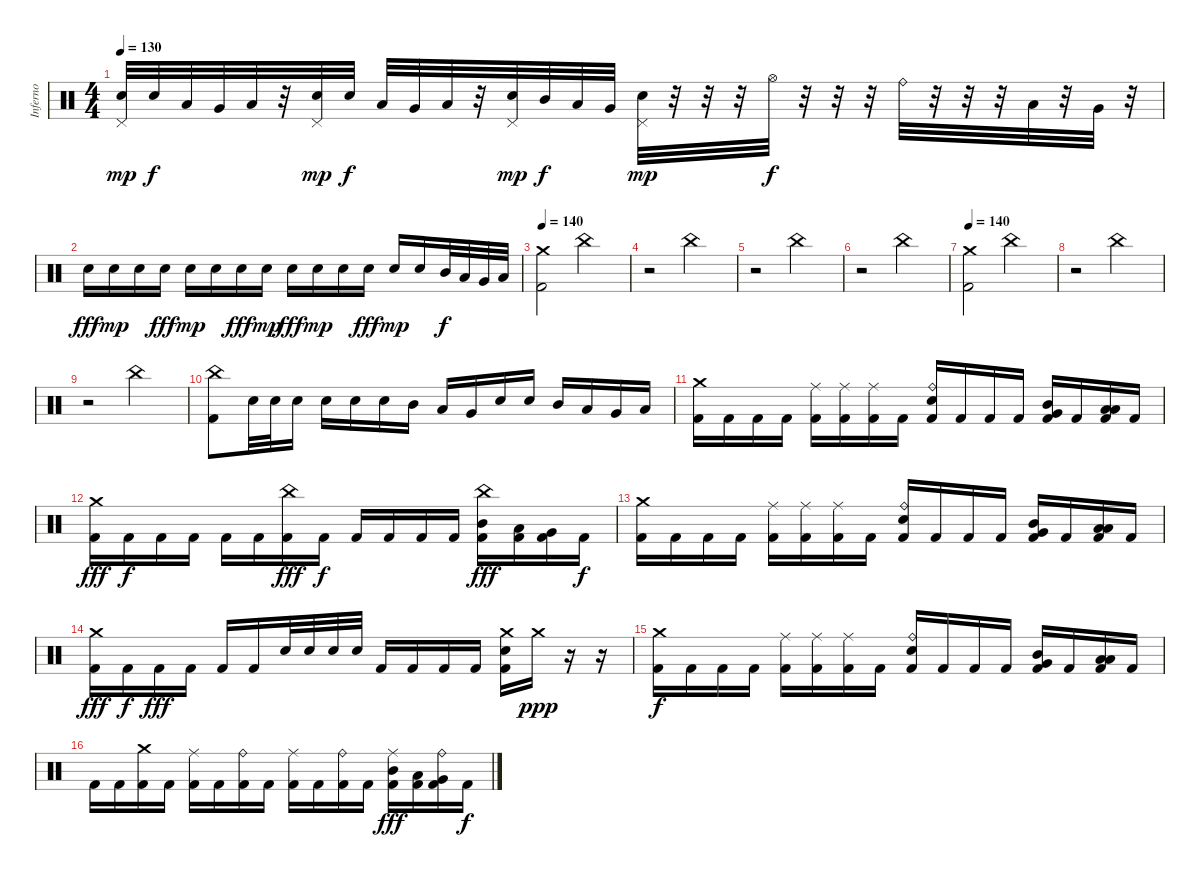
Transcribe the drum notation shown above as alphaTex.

\track ("Inferno" "Inferno") {instrument percussion}
\staff {score}
\articulation defaults
\ts (4 4)
\tempo 130
\clef neutral
\ks c
("Pedal Hi-Hat (hit)" "Snare (hit) 2").32{dy mp} "Snare (hit) 2".32{dy f} "Low Tom (hit)".32 "Very Low Tom (hit)".32 "Low Floor Tom (hit)".32 r.32 ("Pedal Hi-Hat (hit)" "Snare (hit) 2").32{dy mp} "Snare (hit) 2".32{dy f} "Low Tom (hit)".32 "Very Low Tom (hit)".32 "Low Floor Tom (hit)".32 r.32 ("Pedal Hi-Hat (hit)" "Snare (hit) 2").32{dy mp} "Mid Tom (hit)".32{dy f} "Low Tom (hit)".32 "Very Low Tom (hit)".32 ("Pedal Hi-Hat (hit)" "Snare (hit) 2").32{dy mp} r.32 r.32 r.32 "Hi-Hat (open)".32{dy f} r.32 r.32 r.32 "Ride (bell)".32 r.32 r.32 r.32 "Low Tom (hit)".32 r.32 "Very Low Tom (hit)".32 r.32 |
"Snare (hit) 2".16{dy fff} "Snare (hit) 2".16{dy mp} "Snare (hit) 2".16 "Snare (hit) 2".16{dy fff} "Snare (hit) 2".16{dy mp} "Snare (hit) 2".16 "Snare (hit) 2".16{dy fff} "Snare (hit) 2".16{dy mp} "Snare (hit) 2".16{dy fff} "Snare (hit) 2".16{dy mp} "Snare (hit) 2".16 "Snare (hit) 2".16{dy fff} "Snare (hit) 2".16{dy mp} "Snare (hit) 2".16 "Mid Tom (hit)".32{dy f} "Low Tom (hit)".32 "Very Low Tom (hit)".32 "Low Floor Tom (hit)".32 |
\tempo 140
("Crash medium (hit)" "Kick (hit) 2").2 "China (hit)".2 |
r.2 "China (hit)".2 |
r.2 "China (hit)".2 |
r.2 "China (hit)".2 |
\tempo 140
("Crash medium (hit)" "Kick (hit) 2").2 "China (hit)".2 |
r.2 "China (hit)".2 |
r.2 "China (hit)".2 |
("China (hit)" "Kick (hit) 2").8 "Snare (hit) 2".32 "Snare (hit) 2".32 "Snare (hit) 2".16 "Snare (hit) 2".16 "Snare (hit) 2".16 "Snare (hit) 2".16 "Mid Tom (hit)".16 "Low Tom (hit)".16 "Very Low Tom (hit)".16 "Snare (hit) 2".16 "Snare (hit) 2".16 "Mid Tom (hit)".16 "Low Tom (hit)".16 "Very Low Tom (hit)".16 "Low Floor Tom (hit)".16 |
("Crash medium (hit)" "Kick (hit) 2").16 "Kick (hit) 2".16 "Kick (hit) 2".16 "Kick (hit) 2".16 ("Ride (middle)" "Kick (hit) 2").16 ("Ride (middle)" "Kick (hit) 2").16 ("Ride (middle)" "Kick (hit) 2").16 "Kick (hit) 2".16 ("Ride (bell)" "Snare (hit) 2" "Kick (hit) 2").16 "Kick (hit) 2".16 "Kick (hit) 2".16 "Kick (hit) 2".16 ("Mid Tom (hit)" "Very Low Tom (hit)" "Kick (hit) 2").16 "Kick (hit) 2".16 ("Low Tom (hit)" "Low Floor Tom (hit)" "Kick (hit) 2").16 "Kick (hit) 2".16 |
("Crash medium (hit)" "Kick (hit) 2").16{dy fff} "Kick (hit) 2".16{dy f} "Kick (hit) 2".16 "Kick (hit) 2".16 "Kick (hit) 2".16 "Kick (hit) 2".16 ("China (hit)" "Kick (hit) 2").16{dy fff} "Kick (hit) 2".16{dy f} "Kick (hit) 2".16 "Kick (hit) 2".16 "Kick (hit) 2".16 "Kick (hit) 2".16 ("China (hit)" "Mid Tom (hit)" "Kick (hit) 2").16{dy fff} ("Low Tom (hit)" "Kick (hit) 2").16 ("Very Low Tom (hit)" "Kick (hit) 2").16 "Kick (hit) 2".16{dy f} |
("Crash medium (hit)" "Kick (hit) 2").16 "Kick (hit) 2".16 "Kick (hit) 2".16 "Kick (hit) 2".16 ("Ride (middle)" "Kick (hit) 2").16 ("Ride (middle)" "Kick (hit) 2").16 ("Ride (middle)" "Kick (hit) 2").16 "Kick (hit) 2".16 ("Ride (bell)" "Snare (hit) 2" "Kick (hit) 2").16 "Kick (hit) 2".16 "Kick (hit) 2".16 "Kick (hit) 2".16 ("Mid Tom (hit)" "Very Low Tom (hit)" "Kick (hit) 2").16 "Kick (hit) 2".16 ("Low Tom (hit)" "Low Floor Tom (hit)" "Kick (hit) 2").16 "Kick (hit) 2".16 |
("Crash medium (hit)" "Kick (hit) 2").16{dy fff} "Kick (hit) 2".16{dy f} "Kick (hit) 2".16{dy fff} "Kick (hit) 2".16 "Kick (hit) 2".16 "Kick (hit) 2".16 "Snare (hit) 2".32 "Snare (hit) 2".32 "Snare (hit) 2".32 "Snare (hit) 2".32 "Kick (hit) 2".16 "Kick (hit) 2".16 "Kick (hit) 2".16 "Kick (hit) 2".16 ("Crash medium (hit)" "Snare (hit) 2" "Kick (hit) 2").16 "Crash medium (hit)".16{dy ppp} r.16 r.16 |
("Crash medium (hit)" "Kick (hit) 2").16{dy f} "Kick (hit) 2".16 "Kick (hit) 2".16 "Kick (hit) 2".16 ("Ride (middle)" "Kick (hit) 2").16 ("Ride (middle)" "Kick (hit) 2").16 ("Ride (middle)" "Kick (hit) 2").16 "Kick (hit) 2".16 ("Ride (bell)" "Snare (hit) 2" "Kick (hit) 2").16 "Kick (hit) 2".16 "Kick (hit) 2".16 "Kick (hit) 2".16 ("Mid Tom (hit)" "Very Low Tom (hit)" "Kick (hit) 2").16 "Kick (hit) 2".16 ("Low Tom (hit)" "Low Floor Tom (hit)" "Kick (hit) 2").16 "Kick (hit) 2".16 |
"Kick (hit) 2".16 "Kick (hit) 2".16 ("Crash medium (hit)" "Kick (hit) 2").16 "Kick (hit) 2".16 ("Ride (middle)" "Kick (hit) 2").16 "Kick (hit) 2".16 ("Ride (bell)" "Kick (hit) 2").16 "Kick (hit) 2".16 ("Ride (middle)" "Kick (hit) 2").16 "Kick (hit) 2".16 ("Ride (bell)" "Kick (hit) 2").16 "Kick (hit) 2".16 ("Ride (middle)" "Mid Tom (hit)" "Kick (hit) 2").16{dy fff} ("Low Tom (hit)" "Kick (hit) 2").16 ("Ride (bell)" "Very Low Tom (hit)" "Kick (hit) 2").16 "Kick (hit) 2".16{dy f}
